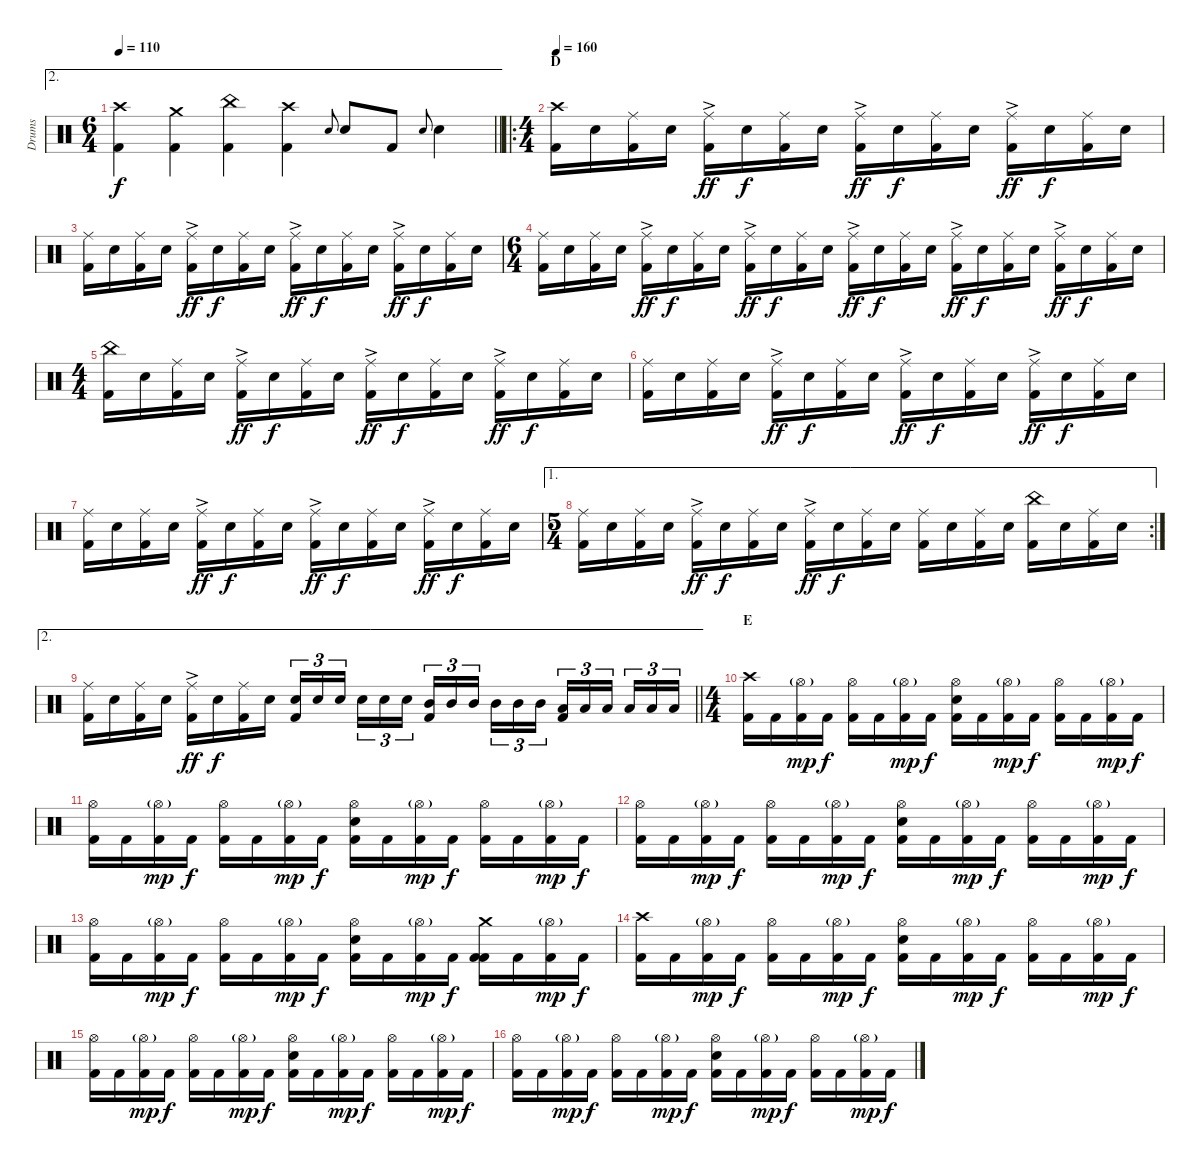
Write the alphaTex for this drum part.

\track ("Drums" "Drums") {instrument percussion}
\staff {score}
\articulation defaults
\ae 2
\ts (6 4)
\tempo 110
\clef neutral
\barLineRight lightlight
\ks c
("Crash high (hit)" "Kick (hit) 2").4{dy f} ("Crash medium (hit)" "Kick (hit) 2").4 ("China (hit)" "Kick (hit) 2").4 ("Crash high (hit)" "Kick (hit) 2").4 "Snare (hit) 2".8{gr onbeat} "Snare (hit) 2".8 "Kick (hit) 2".8 "Snare (hit) 2".8{gr onbeat} "Snare (hit) 2".4 |
\ro
\ts (4 4)
\section ("" "D")
\tempo 160
("Crash high (hit)" "Kick (hit) 2").16 "Snare (hit) 2".16 ("Ride (middle)" "Kick (hit) 2").16 "Snare (hit) 2".16 ("Ride (middle)"{ac} "Kick (hit) 2").16{dy ff} "Snare (hit) 2".16{dy f} ("Ride (middle)" "Kick (hit) 2").16 "Snare (hit) 2".16 ("Ride (middle)"{ac} "Kick (hit) 2").16{dy ff} "Snare (hit) 2".16{dy f} ("Ride (middle)" "Kick (hit) 2").16 "Snare (hit) 2".16 ("Ride (middle)"{ac} "Kick (hit) 2").16{dy ff} "Snare (hit) 2".16{dy f} ("Ride (middle)" "Kick (hit) 2").16 "Snare (hit) 2".16 |
("Ride (middle)" "Kick (hit) 2").16 "Snare (hit) 2".16 ("Ride (middle)" "Kick (hit) 2").16 "Snare (hit) 2".16 ("Ride (middle)"{ac} "Kick (hit) 2").16{dy ff} "Snare (hit) 2".16{dy f} ("Ride (middle)" "Kick (hit) 2").16 "Snare (hit) 2".16 ("Ride (middle)"{ac} "Kick (hit) 2").16{dy ff} "Snare (hit) 2".16{dy f} ("Ride (middle)" "Kick (hit) 2").16 "Snare (hit) 2".16 ("Ride (middle)"{ac} "Kick (hit) 2").16{dy ff} "Snare (hit) 2".16{dy f} ("Ride (middle)" "Kick (hit) 2").16 "Snare (hit) 2".16 |
\ts (6 4)
("Ride (middle)" "Kick (hit) 2").16 "Snare (hit) 2".16 ("Ride (middle)" "Kick (hit) 2").16 "Snare (hit) 2".16 ("Ride (middle)"{ac} "Kick (hit) 2").16{dy ff} "Snare (hit) 2".16{dy f} ("Ride (middle)" "Kick (hit) 2").16 "Snare (hit) 2".16 ("Ride (middle)"{ac} "Kick (hit) 2").16{dy ff} "Snare (hit) 2".16{dy f} ("Ride (middle)" "Kick (hit) 2").16 "Snare (hit) 2".16 ("Ride (middle)"{ac} "Kick (hit) 2").16{dy ff} "Snare (hit) 2".16{dy f} ("Ride (middle)" "Kick (hit) 2").16 "Snare (hit) 2".16 ("Ride (middle)"{ac} "Kick (hit) 2").16{dy ff} "Snare (hit) 2".16{dy f} ("Ride (middle)" "Kick (hit) 2").16 "Snare (hit) 2".16 ("Ride (middle)"{ac} "Kick (hit) 2").16{dy ff} "Snare (hit) 2".16{dy f} ("Ride (middle)" "Kick (hit) 2").16 "Snare (hit) 2".16 |
\ts (4 4)
("China (hit)" "Kick (hit) 2").16 "Snare (hit) 2".16 ("Ride (middle)" "Kick (hit) 2").16 "Snare (hit) 2".16 ("Ride (middle)"{ac} "Kick (hit) 2").16{dy ff} "Snare (hit) 2".16{dy f} ("Ride (middle)" "Kick (hit) 2").16 "Snare (hit) 2".16 ("Ride (middle)"{ac} "Kick (hit) 2").16{dy ff} "Snare (hit) 2".16{dy f} ("Ride (middle)" "Kick (hit) 2").16 "Snare (hit) 2".16 ("Ride (middle)"{ac} "Kick (hit) 2").16{dy ff} "Snare (hit) 2".16{dy f} ("Ride (middle)" "Kick (hit) 2").16 "Snare (hit) 2".16 |
("Ride (middle)" "Kick (hit) 2").16 "Snare (hit) 2".16 ("Ride (middle)" "Kick (hit) 2").16 "Snare (hit) 2".16 ("Ride (middle)"{ac} "Kick (hit) 2").16{dy ff} "Snare (hit) 2".16{dy f} ("Ride (middle)" "Kick (hit) 2").16 "Snare (hit) 2".16 ("Ride (middle)"{ac} "Kick (hit) 2").16{dy ff} "Snare (hit) 2".16{dy f} ("Ride (middle)" "Kick (hit) 2").16 "Snare (hit) 2".16 ("Ride (middle)"{ac} "Kick (hit) 2").16{dy ff} "Snare (hit) 2".16{dy f} ("Ride (middle)" "Kick (hit) 2").16 "Snare (hit) 2".16 |
("Ride (middle)" "Kick (hit) 2").16 "Snare (hit) 2".16 ("Ride (middle)" "Kick (hit) 2").16 "Snare (hit) 2".16 ("Ride (middle)"{ac} "Kick (hit) 2").16{dy ff} "Snare (hit) 2".16{dy f} ("Ride (middle)" "Kick (hit) 2").16 "Snare (hit) 2".16 ("Ride (middle)"{ac} "Kick (hit) 2").16{dy ff} "Snare (hit) 2".16{dy f} ("Ride (middle)" "Kick (hit) 2").16 "Snare (hit) 2".16 ("Ride (middle)"{ac} "Kick (hit) 2").16{dy ff} "Snare (hit) 2".16{dy f} ("Ride (middle)" "Kick (hit) 2").16 "Snare (hit) 2".16 |
\ae 1
\rc 2
\ts (5 4)
("Ride (middle)" "Kick (hit) 2").16 "Snare (hit) 2".16 ("Ride (middle)" "Kick (hit) 2").16 "Snare (hit) 2".16 ("Ride (middle)"{ac} "Kick (hit) 2").16{dy ff} "Snare (hit) 2".16{dy f} ("Ride (middle)" "Kick (hit) 2").16 "Snare (hit) 2".16 ("Ride (middle)"{ac} "Kick (hit) 2").16{dy ff} "Snare (hit) 2".16{dy f} ("Ride (middle)" "Kick (hit) 2").16 "Snare (hit) 2".16 ("Ride (middle)" "Kick (hit) 2").16 "Snare (hit) 2".16 ("Ride (middle)" "Kick (hit) 2").16 "Snare (hit) 2".16 ("China (hit)" "Kick (hit) 2").16 "Snare (hit) 2".16 ("Ride (middle)" "Kick (hit) 2").16 "Snare (hit) 2".16 |
\ae 2
\barLineRight lightlight
("Ride (middle)" "Kick (hit) 2").16 "Snare (hit) 2".16 ("Ride (middle)" "Kick (hit) 2").16 "Snare (hit) 2".16 ("Ride (middle)"{ac} "Kick (hit) 2").16{dy ff} "Snare (hit) 2".16{dy f} ("Ride (middle)" "Kick (hit) 2").16 "Snare (hit) 2".16 ("Snare (hit) 2" "Kick (hit) 2").16{tu (3 2)} "Snare (hit) 2".16{tu (3 2)} "Snare (hit) 2".16{tu (3 2) beam splitsecondary} "Snare (hit) 2".16{tu (3 2)} "Snare (hit) 2".16{tu (3 2)} "Snare (hit) 2".16{tu (3 2)} ("Mid Tom (hit)" "Kick (hit) 2").16{tu (3 2)} "Mid Tom (hit)".16{tu (3 2)} "Mid Tom (hit)".16{tu (3 2) beam splitsecondary} "Mid Tom (hit)".16{tu (3 2)} "Mid Tom (hit)".16{tu (3 2)} "Mid Tom (hit)".16{tu (3 2)} ("Low Tom (hit)" "Kick (hit) 2").16{tu (3 2)} "Low Tom (hit)".16{tu (3 2)} "Low Tom (hit)".16{tu (3 2) beam splitsecondary} "Low Tom (hit)".16{tu (3 2)} "Low Tom (hit)".16{tu (3 2)} "Low Tom (hit)".16{tu (3 2)} |
\ts (4 4)
\section ("" "E")
("Crash high (hit)" "Kick (hit) 2").16 "Kick (hit) 2".16 ("Hi-Hat (open)"{g} "Kick (hit) 2").16{dy mp} "Kick (hit) 2".16{dy f} ("Hi-Hat (open)" "Kick (hit) 2").16 "Kick (hit) 2".16 ("Hi-Hat (open)"{g} "Kick (hit) 2").16{dy mp} "Kick (hit) 2".16{dy f} ("Hi-Hat (open)" "Snare (hit) 2" "Kick (hit) 2").16 "Kick (hit) 2".16 ("Hi-Hat (open)"{g} "Kick (hit) 2").16{dy mp} "Kick (hit) 2".16{dy f} ("Hi-Hat (open)" "Kick (hit) 2").16 "Kick (hit) 2".16 ("Hi-Hat (open)"{g} "Kick (hit) 2").16{dy mp} "Kick (hit) 2".16{dy f} |
("Hi-Hat (open)" "Kick (hit) 2").16 "Kick (hit) 2".16 ("Hi-Hat (open)"{g} "Kick (hit) 2").16{dy mp} "Kick (hit) 2".16{dy f} ("Hi-Hat (open)" "Kick (hit) 2").16 "Kick (hit) 2".16 ("Hi-Hat (open)"{g} "Kick (hit) 2").16{dy mp} "Kick (hit) 2".16{dy f} ("Hi-Hat (open)" "Snare (hit) 2" "Kick (hit) 2").16 "Kick (hit) 2".16 ("Hi-Hat (open)"{g} "Kick (hit) 2").16{dy mp} "Kick (hit) 2".16{dy f} ("Hi-Hat (open)" "Kick (hit) 2").16 "Kick (hit) 2".16 ("Hi-Hat (open)"{g} "Kick (hit) 2").16{dy mp} "Kick (hit) 2".16{dy f} |
("Hi-Hat (open)" "Kick (hit) 2").16 "Kick (hit) 2".16 ("Hi-Hat (open)"{g} "Kick (hit) 2").16{dy mp} "Kick (hit) 2".16{dy f} ("Hi-Hat (open)" "Kick (hit) 2").16 "Kick (hit) 2".16 ("Hi-Hat (open)"{g} "Kick (hit) 2").16{dy mp} "Kick (hit) 2".16{dy f} ("Hi-Hat (open)" "Snare (hit) 2" "Kick (hit) 2").16 "Kick (hit) 2".16 ("Hi-Hat (open)"{g} "Kick (hit) 2").16{dy mp} "Kick (hit) 2".16{dy f} ("Hi-Hat (open)" "Kick (hit) 2").16 "Kick (hit) 2".16 ("Hi-Hat (open)"{g} "Kick (hit) 2").16{dy mp} "Kick (hit) 2".16{dy f} |
("Hi-Hat (open)" "Kick (hit) 2").16 "Kick (hit) 2".16 ("Hi-Hat (open)"{g} "Kick (hit) 2").16{dy mp} "Kick (hit) 2".16{dy f} ("Hi-Hat (open)" "Kick (hit) 2").16 "Kick (hit) 2".16 ("Hi-Hat (open)"{g} "Kick (hit) 2").16{dy mp} "Kick (hit) 2".16{dy f} ("Hi-Hat (open)" "Snare (hit) 2" "Kick (hit) 2").16 "Kick (hit) 2".16 ("Hi-Hat (open)"{g} "Kick (hit) 2").16{dy mp} "Kick (hit) 2".16{dy f} ("Crash medium (hit)" "Kick (hit) 2" "Kick (hit) 2").16 "Kick (hit) 2".16 ("Hi-Hat (open)"{g} "Kick (hit) 2").16{dy mp} "Kick (hit) 2".16{dy f} |
("Crash high (hit)" "Kick (hit) 2").16 "Kick (hit) 2".16 ("Hi-Hat (open)"{g} "Kick (hit) 2").16{dy mp} "Kick (hit) 2".16{dy f} ("Hi-Hat (open)" "Kick (hit) 2").16 "Kick (hit) 2".16 ("Hi-Hat (open)"{g} "Kick (hit) 2").16{dy mp} "Kick (hit) 2".16{dy f} ("Hi-Hat (open)" "Snare (hit) 2" "Kick (hit) 2").16 "Kick (hit) 2".16 ("Hi-Hat (open)"{g} "Kick (hit) 2").16{dy mp} "Kick (hit) 2".16{dy f} ("Hi-Hat (open)" "Kick (hit) 2").16 "Kick (hit) 2".16 ("Hi-Hat (open)"{g} "Kick (hit) 2").16{dy mp} "Kick (hit) 2".16{dy f} |
("Hi-Hat (open)" "Kick (hit) 2").16 "Kick (hit) 2".16 ("Hi-Hat (open)"{g} "Kick (hit) 2").16{dy mp} "Kick (hit) 2".16{dy f} ("Hi-Hat (open)" "Kick (hit) 2").16 "Kick (hit) 2".16 ("Hi-Hat (open)"{g} "Kick (hit) 2").16{dy mp} "Kick (hit) 2".16{dy f} ("Hi-Hat (open)" "Snare (hit) 2" "Kick (hit) 2").16 "Kick (hit) 2".16 ("Hi-Hat (open)"{g} "Kick (hit) 2").16{dy mp} "Kick (hit) 2".16{dy f} ("Hi-Hat (open)" "Kick (hit) 2").16 "Kick (hit) 2".16 ("Hi-Hat (open)"{g} "Kick (hit) 2").16{dy mp} "Kick (hit) 2".16{dy f} |
("Hi-Hat (open)" "Kick (hit) 2").16 "Kick (hit) 2".16 ("Hi-Hat (open)"{g} "Kick (hit) 2").16{dy mp} "Kick (hit) 2".16{dy f} ("Hi-Hat (open)" "Kick (hit) 2").16 "Kick (hit) 2".16 ("Hi-Hat (open)"{g} "Kick (hit) 2").16{dy mp} "Kick (hit) 2".16{dy f} ("Hi-Hat (open)" "Snare (hit) 2" "Kick (hit) 2").16 "Kick (hit) 2".16 ("Hi-Hat (open)"{g} "Kick (hit) 2").16{dy mp} "Kick (hit) 2".16{dy f} ("Hi-Hat (open)" "Kick (hit) 2").16 "Kick (hit) 2".16 ("Hi-Hat (open)"{g} "Kick (hit) 2").16{dy mp} "Kick (hit) 2".16{dy f}
